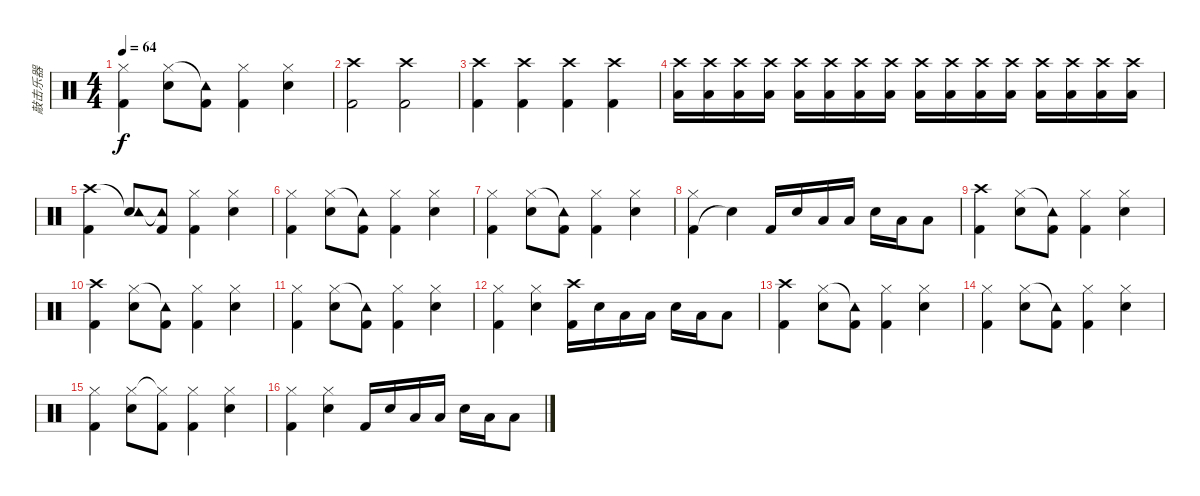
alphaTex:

\track ("敲击乐器" "敲击乐器") {instrument percussion}
\staff {score}
\articulation defaults
\ts (4 4)
\tempo 64
\clef neutral
\ks c
("Kick (hit) 2" "Hi-Hat (closed)").4{dy f} ("Electric Snare (hit)" "Hi-Hat (closed)").8 ("Kick (hit) 2" "Tambourine (hit)"{t}).8 ("Kick (hit) 2" "Hi-Hat (closed)").4 ("Electric Snare (hit)" "Hi-Hat (closed)").4 |
("Kick (hit) 2" "Crash high (hit)").2 ("Kick (hit) 2" "Crash high (hit)").2 |
("Kick (hit) 2" "Crash high (hit)").4 ("Kick (hit) 2" "Crash high (hit)").4 ("Kick (hit) 2" "Crash high (hit)").4 ("Kick (hit) 2" "Crash high (hit)").4 |
("Low Tom (hit)" "Crash high (hit)").16{volume 6} ("Low Tom (hit)" "Crash high (hit)").16{volume 6} ("Low Tom (hit)" "Crash high (hit)").16{volume 7} ("Low Tom (hit)" "Crash high (hit)").16{volume 7} ("Low Tom (hit)" "Crash high (hit)").16{volume 9} ("Low Tom (hit)" "Crash high (hit)").16{volume 10} ("Low Tom (hit)" "Crash high (hit)").16{volume 9} ("Low Tom (hit)" "Crash high (hit)").16{volume 10} ("Low Tom (hit)" "Crash high (hit)").16{volume 10} ("Low Tom (hit)" "Crash high (hit)").16{volume 11} ("Low Tom (hit)" "Crash high (hit)").16{volume 12} ("Low Tom (hit)" "Crash high (hit)").16{volume 12} ("Low Tom (hit)" "Crash high (hit)").16{volume 13} ("Low Tom (hit)" "Crash high (hit)").16{volume 14} ("Low Tom (hit)" "Crash high (hit)").16{volume 15} ("Low Tom (hit)" "Crash high (hit)").16 |
("Kick (hit) 2" "Crash high (hit)").4 ("Electric Snare (hit)" "Tambourine (hit)"{t}).8 ("Kick (hit) 2" "Tambourine (hit)"{t}).8 ("Kick (hit) 2" "Hi-Hat (closed)").4 ("Electric Snare (hit)" "Hi-Hat (closed)").4 |
("Kick (hit) 2" "Hi-Hat (closed)").4 ("Electric Snare (hit)" "Hi-Hat (closed)").8 ("Kick (hit) 2" "Tambourine (hit)"{t}).8 ("Kick (hit) 2" "Hi-Hat (closed)").4 ("Electric Snare (hit)" "Hi-Hat (closed)").4 |
("Kick (hit) 2" "Hi-Hat (closed)").4 ("Electric Snare (hit)" "Hi-Hat (closed)").8 ("Kick (hit) 2" "Tambourine (hit)"{t}).8 ("Kick (hit) 2" "Hi-Hat (closed)").4 ("Electric Snare (hit)" "Hi-Hat (closed)").4 |
("Kick (hit) 2" "Hi-Hat (closed)").4 "Snare (hit)"{t}.4 "Kick (hit) 2".16 "Electric Snare (hit)".16 "Low Tom (hit)".16 "Low Tom (hit)".16 "Electric Snare (hit)".16 "Low Tom (hit)".16 "Low Tom (hit)".8 |
("Kick (hit) 2" "Crash high (hit)").4 ("Electric Snare (hit)" "Hi-Hat (closed)").8 ("Kick (hit) 2" "Tambourine (hit)"{t}).8 ("Kick (hit) 2" "Hi-Hat (closed)").4 ("Electric Snare (hit)" "Hi-Hat (closed)").4 |
("Kick (hit) 2" "Crash high (hit)").4 ("Electric Snare (hit)" "Hi-Hat (closed)").8 ("Kick (hit) 2" "Tambourine (hit)"{t}).8 ("Kick (hit) 2" "Hi-Hat (closed)").4 ("Electric Snare (hit)" "Hi-Hat (closed)").4 |
("Kick (hit) 2" "Hi-Hat (closed)").4 ("Electric Snare (hit)" "Hi-Hat (closed)").8 ("Kick (hit) 2" "Tambourine (hit)"{t}).8 ("Kick (hit) 2" "Hi-Hat (closed)").4 ("Electric Snare (hit)" "Hi-Hat (closed)").4 |
("Kick (hit) 2" "Hi-Hat (closed)").4 ("Electric Snare (hit)" "Hi-Hat (closed)").4 ("Kick (hit) 2" "Crash high (hit)").16 "Electric Snare (hit)".16 "Low Tom (hit)".16 "Low Tom (hit)".16 "Electric Snare (hit)".16 "Low Tom (hit)".16 "Low Tom (hit)".8 |
("Kick (hit) 2" "Crash high (hit)").4 ("Electric Snare (hit)" "Hi-Hat (closed)").8 ("Kick (hit) 2" "Tambourine (hit)"{t}).8 ("Kick (hit) 2" "Hi-Hat (closed)").4 ("Electric Snare (hit)" "Hi-Hat (closed)").4 |
("Kick (hit) 2" "Hi-Hat (closed)").4 ("Electric Snare (hit)" "Hi-Hat (closed)").8 ("Kick (hit) 2" "Tambourine (hit)"{t}).8 ("Kick (hit) 2" "Hi-Hat (closed)").4 ("Electric Snare (hit)" "Hi-Hat (closed)").4 |
("Kick (hit) 2" "Hi-Hat (closed)").4 ("Electric Snare (hit)" "Hi-Hat (closed)").8 ("Kick (hit) 2" "Hi-Hat (closed)"{t}).8 ("Kick (hit) 2" "Hi-Hat (closed)").4 ("Electric Snare (hit)" "Hi-Hat (closed)").4 |
("Kick (hit) 2" "Hi-Hat (closed)").4 ("Electric Snare (hit)" "Hi-Hat (closed)").4 "Kick (hit) 2".16 "Electric Snare (hit)".16 "Low Tom (hit)".16 "Low Tom (hit)".16 "Electric Snare (hit)".16 "Low Tom (hit)".16 "Low Tom (hit)".8
